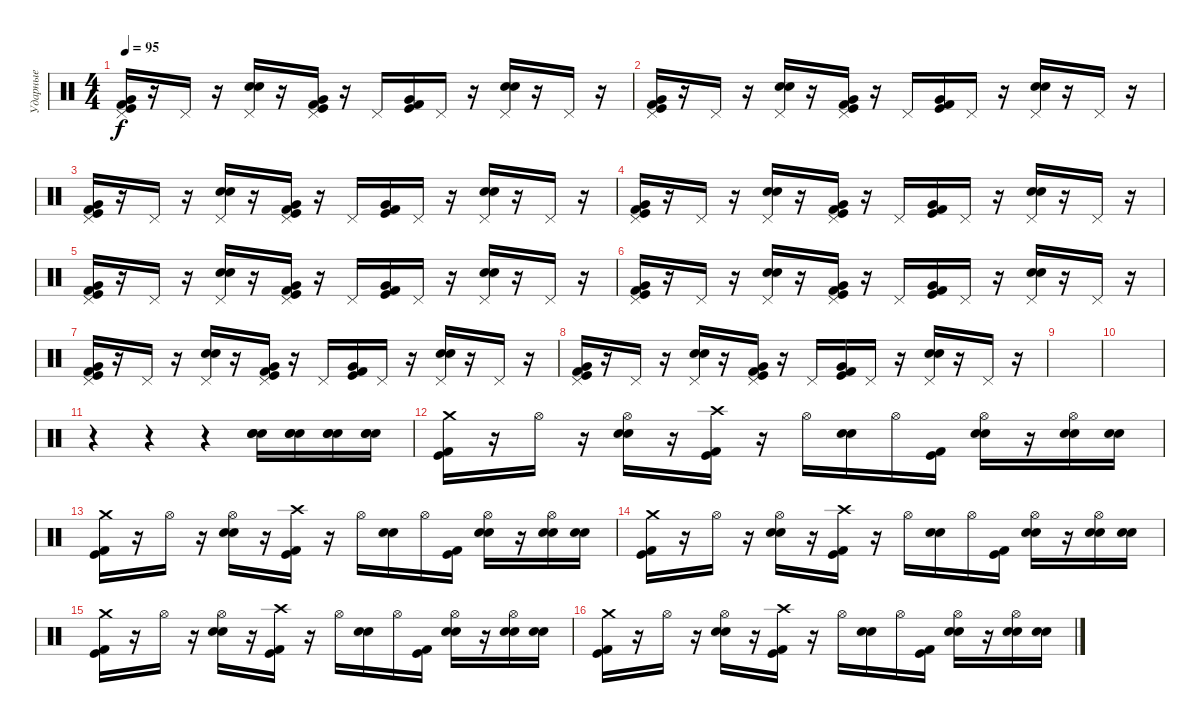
\track ("Ударные" "Ударные") {instrument percussion}
\staff {score}
\articulation defaults
\ts (4 4)
\tempo 95
\clef neutral
\ks c
("Pedal Hi-Hat (hit)" "Very Low Tom (hit)" "Kick (hit)" "Kick (hit) 2").16{dy f} r.16 "Pedal Hi-Hat (hit)".16 r.16 ("Pedal Hi-Hat (hit)" "Electric Snare (hit)" "Snare (hit) 2").16 r.16 ("Pedal Hi-Hat (hit)" "Very Low Tom (hit)" "Kick (hit)" "Kick (hit) 2").16 r.16 "Pedal Hi-Hat (hit)".16 ("Very Low Tom (hit)" "Kick (hit)" "Kick (hit) 2").16 "Pedal Hi-Hat (hit)".16 r.16 ("Pedal Hi-Hat (hit)" "Electric Snare (hit)" "Snare (hit) 2").16 r.16 "Pedal Hi-Hat (hit)".16 r.16 |
("Pedal Hi-Hat (hit)" "Very Low Tom (hit)" "Kick (hit)" "Kick (hit) 2").16 r.16 "Pedal Hi-Hat (hit)".16 r.16 ("Pedal Hi-Hat (hit)" "Electric Snare (hit)" "Snare (hit) 2").16 r.16 ("Pedal Hi-Hat (hit)" "Very Low Tom (hit)" "Kick (hit)" "Kick (hit) 2").16 r.16 "Pedal Hi-Hat (hit)".16 ("Very Low Tom (hit)" "Kick (hit)" "Kick (hit) 2").16 "Pedal Hi-Hat (hit)".16 r.16 ("Pedal Hi-Hat (hit)" "Electric Snare (hit)" "Snare (hit) 2").16 r.16 "Pedal Hi-Hat (hit)".16 r.16 |
("Pedal Hi-Hat (hit)" "Very Low Tom (hit)" "Kick (hit)" "Kick (hit) 2").16 r.16 "Pedal Hi-Hat (hit)".16 r.16 ("Pedal Hi-Hat (hit)" "Electric Snare (hit)" "Snare (hit) 2").16 r.16 ("Pedal Hi-Hat (hit)" "Very Low Tom (hit)" "Kick (hit)" "Kick (hit) 2").16 r.16 "Pedal Hi-Hat (hit)".16 ("Very Low Tom (hit)" "Kick (hit)" "Kick (hit) 2").16 "Pedal Hi-Hat (hit)".16 r.16 ("Pedal Hi-Hat (hit)" "Electric Snare (hit)" "Snare (hit) 2").16 r.16 "Pedal Hi-Hat (hit)".16 r.16 |
("Pedal Hi-Hat (hit)" "Very Low Tom (hit)" "Kick (hit)" "Kick (hit) 2").16 r.16 "Pedal Hi-Hat (hit)".16 r.16 ("Pedal Hi-Hat (hit)" "Electric Snare (hit)" "Snare (hit) 2").16 r.16 ("Pedal Hi-Hat (hit)" "Very Low Tom (hit)" "Kick (hit)" "Kick (hit) 2").16 r.16 "Pedal Hi-Hat (hit)".16 ("Very Low Tom (hit)" "Kick (hit)" "Kick (hit) 2").16 "Pedal Hi-Hat (hit)".16 r.16 ("Pedal Hi-Hat (hit)" "Electric Snare (hit)" "Snare (hit) 2").16 r.16 "Pedal Hi-Hat (hit)".16 r.16 |
("Pedal Hi-Hat (hit)" "Very Low Tom (hit)" "Kick (hit)" "Kick (hit) 2").16 r.16 "Pedal Hi-Hat (hit)".16 r.16 ("Pedal Hi-Hat (hit)" "Electric Snare (hit)" "Snare (hit) 2").16 r.16 ("Pedal Hi-Hat (hit)" "Very Low Tom (hit)" "Kick (hit)" "Kick (hit) 2").16 r.16 "Pedal Hi-Hat (hit)".16 ("Very Low Tom (hit)" "Kick (hit)" "Kick (hit) 2").16 "Pedal Hi-Hat (hit)".16 r.16 ("Pedal Hi-Hat (hit)" "Electric Snare (hit)" "Snare (hit) 2").16 r.16 "Pedal Hi-Hat (hit)".16 r.16 |
("Pedal Hi-Hat (hit)" "Very Low Tom (hit)" "Kick (hit)" "Kick (hit) 2").16 r.16 "Pedal Hi-Hat (hit)".16 r.16 ("Pedal Hi-Hat (hit)" "Electric Snare (hit)" "Snare (hit) 2").16 r.16 ("Pedal Hi-Hat (hit)" "Very Low Tom (hit)" "Kick (hit)" "Kick (hit) 2").16 r.16 "Pedal Hi-Hat (hit)".16 ("Very Low Tom (hit)" "Kick (hit)" "Kick (hit) 2").16 "Pedal Hi-Hat (hit)".16 r.16 ("Pedal Hi-Hat (hit)" "Electric Snare (hit)" "Snare (hit) 2").16 r.16 "Pedal Hi-Hat (hit)".16 r.16 |
("Pedal Hi-Hat (hit)" "Very Low Tom (hit)" "Kick (hit)" "Kick (hit) 2").16 r.16 "Pedal Hi-Hat (hit)".16 r.16 ("Pedal Hi-Hat (hit)" "Electric Snare (hit)" "Snare (hit) 2").16 r.16 ("Pedal Hi-Hat (hit)" "Very Low Tom (hit)" "Kick (hit)" "Kick (hit) 2").16 r.16 "Pedal Hi-Hat (hit)".16 ("Very Low Tom (hit)" "Kick (hit)" "Kick (hit) 2").16 "Pedal Hi-Hat (hit)".16 r.16 ("Pedal Hi-Hat (hit)" "Electric Snare (hit)" "Snare (hit) 2").16 r.16 "Pedal Hi-Hat (hit)".16 r.16 |
("Pedal Hi-Hat (hit)" "Very Low Tom (hit)" "Kick (hit)" "Kick (hit) 2").16 r.16 "Pedal Hi-Hat (hit)".16 r.16 ("Pedal Hi-Hat (hit)" "Electric Snare (hit)" "Snare (hit) 2").16 r.16 ("Pedal Hi-Hat (hit)" "Very Low Tom (hit)" "Kick (hit)" "Kick (hit) 2").16 r.16 "Pedal Hi-Hat (hit)".16 ("Very Low Tom (hit)" "Kick (hit)" "Kick (hit) 2").16 "Pedal Hi-Hat (hit)".16 r.16 ("Pedal Hi-Hat (hit)" "Electric Snare (hit)" "Snare (hit) 2").16 r.16 "Pedal Hi-Hat (hit)".16 r.16 |
|
|
r.4 r.4 r.4 ("Snare (hit) 2" "Electric Snare (hit)" "Snare (hit) 2").16 ("Snare (hit) 2" "Electric Snare (hit)" "Snare (hit) 2").16 ("Snare (hit) 2" "Electric Snare (hit)" "Snare (hit) 2").16 ("Snare (hit) 2" "Electric Snare (hit)" "Snare (hit) 2").16 |
("Crash medium (hit)" "Kick (hit)" "Kick (hit) 2").16 r.16 "Hi-Hat (open)".16 r.16 ("Hi-Hat (open)" "Electric Snare (hit)" "Snare (hit) 2").16 r.16 ("Crash high (hit)" "Kick (hit)" "Kick (hit) 2").16 r.16 "Hi-Hat (open)".16 ("Snare (hit) 2" "Electric Snare (hit)").16 "Hi-Hat (open)".16 ("Kick (hit)" "Kick (hit) 2").16 ("Hi-Hat (open)" "Electric Snare (hit)" "Snare (hit) 2").16 r.16 ("Hi-Hat (open)" "Snare (hit) 2" "Electric Snare (hit)").16 ("Snare (hit) 2" "Electric Snare (hit)").16 |
("Crash medium (hit)" "Kick (hit)" "Kick (hit) 2").16 r.16 "Hi-Hat (open)".16 r.16 ("Hi-Hat (open)" "Electric Snare (hit)" "Snare (hit) 2").16 r.16 ("Crash high (hit)" "Kick (hit)" "Kick (hit) 2").16 r.16 "Hi-Hat (open)".16 ("Snare (hit) 2" "Electric Snare (hit)").16 "Hi-Hat (open)".16 ("Kick (hit)" "Kick (hit) 2").16 ("Hi-Hat (open)" "Electric Snare (hit)" "Snare (hit) 2").16 r.16 ("Hi-Hat (open)" "Snare (hit) 2" "Electric Snare (hit)").16 ("Snare (hit) 2" "Electric Snare (hit)").16 |
("Crash medium (hit)" "Kick (hit)" "Kick (hit) 2").16 r.16 "Hi-Hat (open)".16 r.16 ("Hi-Hat (open)" "Electric Snare (hit)" "Snare (hit) 2").16 r.16 ("Crash high (hit)" "Kick (hit)" "Kick (hit) 2").16 r.16 "Hi-Hat (open)".16 ("Snare (hit) 2" "Electric Snare (hit)").16 "Hi-Hat (open)".16 ("Kick (hit)" "Kick (hit) 2").16 ("Hi-Hat (open)" "Electric Snare (hit)" "Snare (hit) 2").16 r.16 ("Hi-Hat (open)" "Snare (hit) 2" "Electric Snare (hit)").16 ("Snare (hit) 2" "Electric Snare (hit)").16 |
("Crash medium (hit)" "Kick (hit)" "Kick (hit) 2").16 r.16 "Hi-Hat (open)".16 r.16 ("Hi-Hat (open)" "Electric Snare (hit)" "Snare (hit) 2").16 r.16 ("Crash high (hit)" "Kick (hit)" "Kick (hit) 2").16 r.16 "Hi-Hat (open)".16 ("Snare (hit) 2" "Electric Snare (hit)").16 "Hi-Hat (open)".16 ("Kick (hit)" "Kick (hit) 2").16 ("Hi-Hat (open)" "Electric Snare (hit)" "Snare (hit) 2").16 r.16 ("Hi-Hat (open)" "Snare (hit) 2" "Electric Snare (hit)").16 ("Snare (hit) 2" "Electric Snare (hit)").16 |
("Crash medium (hit)" "Kick (hit)" "Kick (hit) 2").16 r.16 "Hi-Hat (open)".16 r.16 ("Hi-Hat (open)" "Electric Snare (hit)" "Snare (hit) 2").16 r.16 ("Crash high (hit)" "Kick (hit)" "Kick (hit) 2").16 r.16 "Hi-Hat (open)".16 ("Snare (hit) 2" "Electric Snare (hit)").16 "Hi-Hat (open)".16 ("Kick (hit)" "Kick (hit) 2").16 ("Hi-Hat (open)" "Electric Snare (hit)" "Snare (hit) 2").16 r.16 ("Hi-Hat (open)" "Snare (hit) 2" "Electric Snare (hit)").16 ("Snare (hit) 2" "Electric Snare (hit)").16
